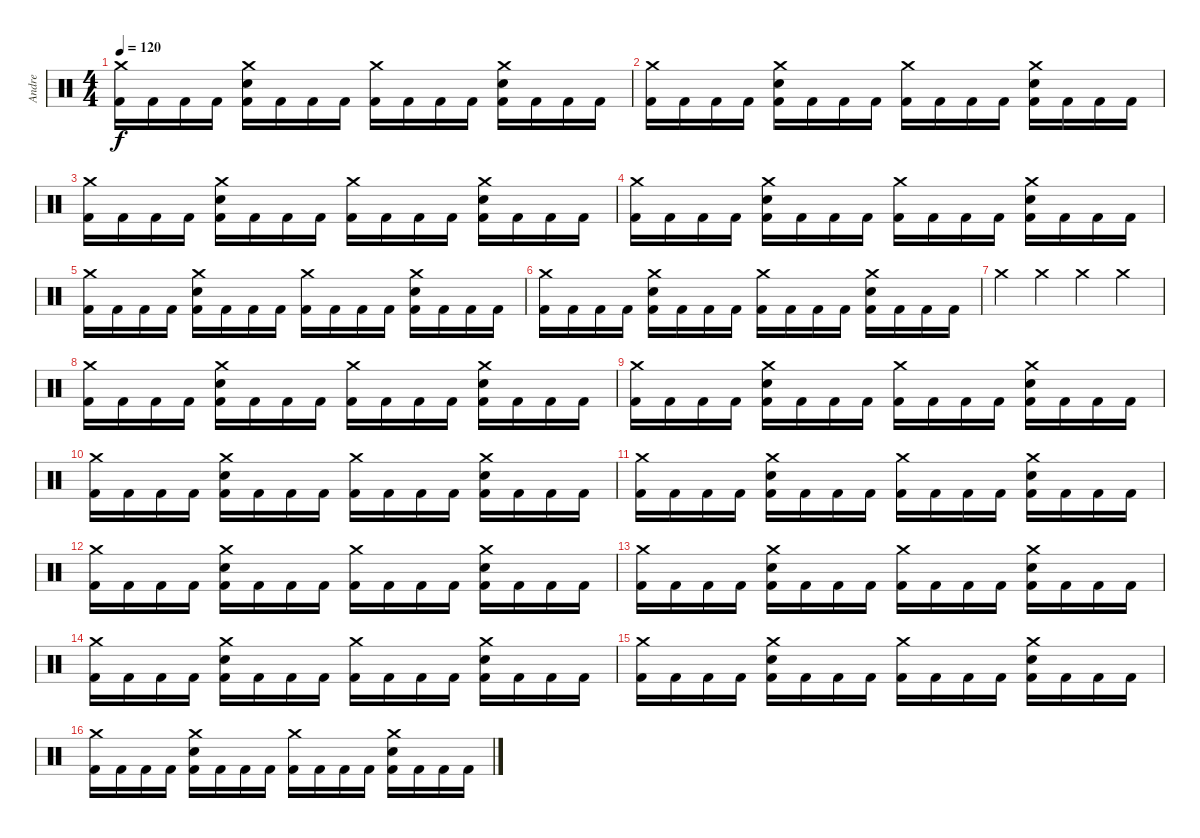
\track ("Andre" "Andre") {instrument percussion}
\staff {score}
\articulation defaults
\ts (4 4)
\tempo 120
\clef neutral
\ks c
("Crash medium (hit)" "Kick (hit) 2").16{dy f} "Kick (hit) 2".16 "Kick (hit) 2".16 "Kick (hit) 2".16 ("Crash medium (hit)" "Snare (hit) 2" "Kick (hit) 2").16 "Kick (hit) 2".16 "Kick (hit) 2".16 "Kick (hit) 2".16 ("Crash medium (hit)" "Kick (hit) 2").16 "Kick (hit) 2".16 "Kick (hit) 2".16 "Kick (hit) 2".16 ("Crash medium (hit)" "Snare (hit) 2" "Kick (hit) 2").16 "Kick (hit) 2".16 "Kick (hit) 2".16 "Kick (hit) 2".16 |
("Crash medium (hit)" "Kick (hit) 2").16 "Kick (hit) 2".16 "Kick (hit) 2".16 "Kick (hit) 2".16 ("Crash medium (hit)" "Snare (hit) 2" "Kick (hit) 2").16 "Kick (hit) 2".16 "Kick (hit) 2".16 "Kick (hit) 2".16 ("Crash medium (hit)" "Kick (hit) 2").16 "Kick (hit) 2".16 "Kick (hit) 2".16 "Kick (hit) 2".16 ("Crash medium (hit)" "Snare (hit) 2" "Kick (hit) 2").16 "Kick (hit) 2".16 "Kick (hit) 2".16 "Kick (hit) 2".16 |
("Crash medium (hit)" "Kick (hit) 2").16 "Kick (hit) 2".16 "Kick (hit) 2".16 "Kick (hit) 2".16 ("Crash medium (hit)" "Snare (hit) 2" "Kick (hit) 2").16 "Kick (hit) 2".16 "Kick (hit) 2".16 "Kick (hit) 2".16 ("Crash medium (hit)" "Kick (hit) 2").16 "Kick (hit) 2".16 "Kick (hit) 2".16 "Kick (hit) 2".16 ("Crash medium (hit)" "Snare (hit) 2" "Kick (hit) 2").16 "Kick (hit) 2".16 "Kick (hit) 2".16 "Kick (hit) 2".16 |
("Crash medium (hit)" "Kick (hit) 2").16 "Kick (hit) 2".16 "Kick (hit) 2".16 "Kick (hit) 2".16 ("Crash medium (hit)" "Snare (hit) 2" "Kick (hit) 2").16 "Kick (hit) 2".16 "Kick (hit) 2".16 "Kick (hit) 2".16 ("Crash medium (hit)" "Kick (hit) 2").16 "Kick (hit) 2".16 "Kick (hit) 2".16 "Kick (hit) 2".16 ("Crash medium (hit)" "Snare (hit) 2" "Kick (hit) 2").16 "Kick (hit) 2".16 "Kick (hit) 2".16 "Kick (hit) 2".16 |
("Crash medium (hit)" "Kick (hit) 2").16 "Kick (hit) 2".16 "Kick (hit) 2".16 "Kick (hit) 2".16 ("Crash medium (hit)" "Snare (hit) 2" "Kick (hit) 2").16 "Kick (hit) 2".16 "Kick (hit) 2".16 "Kick (hit) 2".16 ("Crash medium (hit)" "Kick (hit) 2").16 "Kick (hit) 2".16 "Kick (hit) 2".16 "Kick (hit) 2".16 ("Crash medium (hit)" "Snare (hit) 2" "Kick (hit) 2").16 "Kick (hit) 2".16 "Kick (hit) 2".16 "Kick (hit) 2".16 |
("Crash medium (hit)" "Kick (hit) 2").16 "Kick (hit) 2".16 "Kick (hit) 2".16 "Kick (hit) 2".16 ("Crash medium (hit)" "Snare (hit) 2" "Kick (hit) 2").16 "Kick (hit) 2".16 "Kick (hit) 2".16 "Kick (hit) 2".16 ("Crash medium (hit)" "Kick (hit) 2").16 "Kick (hit) 2".16 "Kick (hit) 2".16 "Kick (hit) 2".16 ("Crash medium (hit)" "Snare (hit) 2" "Kick (hit) 2").16 "Kick (hit) 2".16 "Kick (hit) 2".16 "Kick (hit) 2".16 |
"Crash medium (hit)".4 "Crash medium (hit)".4 "Crash medium (hit)".4 "Crash medium (hit)".4 |
("Crash medium (hit)" "Kick (hit) 2").16 "Kick (hit) 2".16 "Kick (hit) 2".16 "Kick (hit) 2".16 ("Crash medium (hit)" "Snare (hit) 2" "Kick (hit) 2").16 "Kick (hit) 2".16 "Kick (hit) 2".16 "Kick (hit) 2".16 ("Crash medium (hit)" "Kick (hit) 2").16 "Kick (hit) 2".16 "Kick (hit) 2".16 "Kick (hit) 2".16 ("Crash medium (hit)" "Snare (hit) 2" "Kick (hit) 2").16 "Kick (hit) 2".16 "Kick (hit) 2".16 "Kick (hit) 2".16 |
("Crash medium (hit)" "Kick (hit) 2").16 "Kick (hit) 2".16 "Kick (hit) 2".16 "Kick (hit) 2".16 ("Crash medium (hit)" "Snare (hit) 2" "Kick (hit) 2").16 "Kick (hit) 2".16 "Kick (hit) 2".16 "Kick (hit) 2".16 ("Crash medium (hit)" "Kick (hit) 2").16 "Kick (hit) 2".16 "Kick (hit) 2".16 "Kick (hit) 2".16 ("Crash medium (hit)" "Snare (hit) 2" "Kick (hit) 2").16 "Kick (hit) 2".16 "Kick (hit) 2".16 "Kick (hit) 2".16 |
("Crash medium (hit)" "Kick (hit) 2").16 "Kick (hit) 2".16 "Kick (hit) 2".16 "Kick (hit) 2".16 ("Crash medium (hit)" "Snare (hit) 2" "Kick (hit) 2").16 "Kick (hit) 2".16 "Kick (hit) 2".16 "Kick (hit) 2".16 ("Crash medium (hit)" "Kick (hit) 2").16 "Kick (hit) 2".16 "Kick (hit) 2".16 "Kick (hit) 2".16 ("Crash medium (hit)" "Snare (hit) 2" "Kick (hit) 2").16 "Kick (hit) 2".16 "Kick (hit) 2".16 "Kick (hit) 2".16 |
("Crash medium (hit)" "Kick (hit) 2").16 "Kick (hit) 2".16 "Kick (hit) 2".16 "Kick (hit) 2".16 ("Crash medium (hit)" "Snare (hit) 2" "Kick (hit) 2").16 "Kick (hit) 2".16 "Kick (hit) 2".16 "Kick (hit) 2".16 ("Crash medium (hit)" "Kick (hit) 2").16 "Kick (hit) 2".16 "Kick (hit) 2".16 "Kick (hit) 2".16 ("Crash medium (hit)" "Snare (hit) 2" "Kick (hit) 2").16 "Kick (hit) 2".16 "Kick (hit) 2".16 "Kick (hit) 2".16 |
("Crash medium (hit)" "Kick (hit) 2").16 "Kick (hit) 2".16 "Kick (hit) 2".16 "Kick (hit) 2".16 ("Crash medium (hit)" "Snare (hit) 2" "Kick (hit) 2").16 "Kick (hit) 2".16 "Kick (hit) 2".16 "Kick (hit) 2".16 ("Crash medium (hit)" "Kick (hit) 2").16 "Kick (hit) 2".16 "Kick (hit) 2".16 "Kick (hit) 2".16 ("Crash medium (hit)" "Snare (hit) 2" "Kick (hit) 2").16 "Kick (hit) 2".16 "Kick (hit) 2".16 "Kick (hit) 2".16 |
("Crash medium (hit)" "Kick (hit) 2").16 "Kick (hit) 2".16 "Kick (hit) 2".16 "Kick (hit) 2".16 ("Crash medium (hit)" "Snare (hit) 2" "Kick (hit) 2").16 "Kick (hit) 2".16 "Kick (hit) 2".16 "Kick (hit) 2".16 ("Crash medium (hit)" "Kick (hit) 2").16 "Kick (hit) 2".16 "Kick (hit) 2".16 "Kick (hit) 2".16 ("Crash medium (hit)" "Snare (hit) 2" "Kick (hit) 2").16 "Kick (hit) 2".16 "Kick (hit) 2".16 "Kick (hit) 2".16 |
("Crash medium (hit)" "Kick (hit) 2").16 "Kick (hit) 2".16 "Kick (hit) 2".16 "Kick (hit) 2".16 ("Crash medium (hit)" "Snare (hit) 2" "Kick (hit) 2").16 "Kick (hit) 2".16 "Kick (hit) 2".16 "Kick (hit) 2".16 ("Crash medium (hit)" "Kick (hit) 2").16 "Kick (hit) 2".16 "Kick (hit) 2".16 "Kick (hit) 2".16 ("Crash medium (hit)" "Snare (hit) 2" "Kick (hit) 2").16 "Kick (hit) 2".16 "Kick (hit) 2".16 "Kick (hit) 2".16 |
("Crash medium (hit)" "Kick (hit) 2").16 "Kick (hit) 2".16 "Kick (hit) 2".16 "Kick (hit) 2".16 ("Crash medium (hit)" "Snare (hit) 2" "Kick (hit) 2").16 "Kick (hit) 2".16 "Kick (hit) 2".16 "Kick (hit) 2".16 ("Crash medium (hit)" "Kick (hit) 2").16 "Kick (hit) 2".16 "Kick (hit) 2".16 "Kick (hit) 2".16 ("Crash medium (hit)" "Snare (hit) 2" "Kick (hit) 2").16 "Kick (hit) 2".16 "Kick (hit) 2".16 "Kick (hit) 2".16 |
("Crash medium (hit)" "Kick (hit) 2").16 "Kick (hit) 2".16 "Kick (hit) 2".16 "Kick (hit) 2".16 ("Crash medium (hit)" "Snare (hit) 2" "Kick (hit) 2").16 "Kick (hit) 2".16 "Kick (hit) 2".16 "Kick (hit) 2".16 ("Crash medium (hit)" "Kick (hit) 2").16 "Kick (hit) 2".16 "Kick (hit) 2".16 "Kick (hit) 2".16 ("Crash medium (hit)" "Snare (hit) 2" "Kick (hit) 2").16 "Kick (hit) 2".16 "Kick (hit) 2".16 "Kick (hit) 2".16
